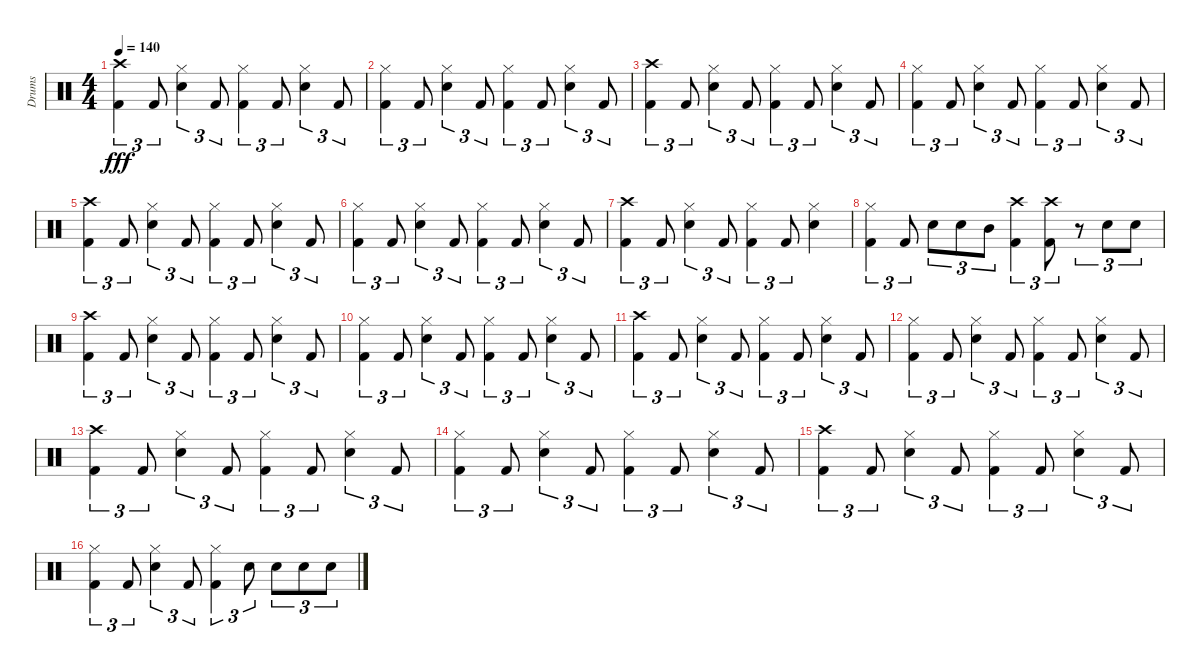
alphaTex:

\track ("Drums" "Drums") {instrument percussion}
\staff {score}
\articulation defaults
\ts (4 4)
\tempo 140
\clef neutral
\ks c
("Crash high (hit)" "Kick (hit) 2").4{tu (3 2) dy fff} "Kick (hit) 2".8{tu (3 2)} ("Hi-Hat (closed)" "Snare (hit) 2").4{tu (3 2)} "Kick (hit) 2".8{tu (3 2)} ("Kick (hit) 2" "Hi-Hat (closed)").4{tu (3 2)} "Kick (hit) 2".8{tu (3 2)} ("Hi-Hat (closed)" "Snare (hit) 2").4{tu (3 2)} "Kick (hit) 2".8{tu (3 2)} |
("Kick (hit) 2" "Hi-Hat (closed)").4{tu (3 2)} "Kick (hit) 2".8{tu (3 2)} ("Hi-Hat (closed)" "Snare (hit) 2").4{tu (3 2)} "Kick (hit) 2".8{tu (3 2)} ("Kick (hit) 2" "Hi-Hat (closed)").4{tu (3 2)} "Kick (hit) 2".8{tu (3 2)} ("Hi-Hat (closed)" "Snare (hit) 2").4{tu (3 2)} "Kick (hit) 2".8{tu (3 2)} |
("Crash high (hit)" "Kick (hit) 2").4{tu (3 2)} "Kick (hit) 2".8{tu (3 2)} ("Hi-Hat (closed)" "Snare (hit) 2").4{tu (3 2)} "Kick (hit) 2".8{tu (3 2)} ("Kick (hit) 2" "Hi-Hat (closed)").4{tu (3 2)} "Kick (hit) 2".8{tu (3 2)} ("Hi-Hat (closed)" "Snare (hit) 2").4{tu (3 2)} "Kick (hit) 2".8{tu (3 2)} |
("Kick (hit) 2" "Hi-Hat (closed)").4{tu (3 2)} "Kick (hit) 2".8{tu (3 2)} ("Hi-Hat (closed)" "Snare (hit) 2").4{tu (3 2)} "Kick (hit) 2".8{tu (3 2)} ("Kick (hit) 2" "Hi-Hat (closed)").4{tu (3 2)} "Kick (hit) 2".8{tu (3 2)} ("Hi-Hat (closed)" "Snare (hit) 2").4{tu (3 2)} "Kick (hit) 2".8{tu (3 2)} |
("Crash high (hit)" "Kick (hit) 2").4{tu (3 2)} "Kick (hit) 2".8{tu (3 2)} ("Hi-Hat (closed)" "Snare (hit) 2").4{tu (3 2)} "Kick (hit) 2".8{tu (3 2)} ("Kick (hit) 2" "Hi-Hat (closed)").4{tu (3 2)} "Kick (hit) 2".8{tu (3 2)} ("Hi-Hat (closed)" "Snare (hit) 2").4{tu (3 2)} "Kick (hit) 2".8{tu (3 2)} |
("Kick (hit) 2" "Hi-Hat (closed)").4{tu (3 2)} "Kick (hit) 2".8{tu (3 2)} ("Hi-Hat (closed)" "Snare (hit) 2").4{tu (3 2)} "Kick (hit) 2".8{tu (3 2)} ("Kick (hit) 2" "Hi-Hat (closed)").4{tu (3 2)} "Kick (hit) 2".8{tu (3 2)} ("Hi-Hat (closed)" "Snare (hit) 2").4{tu (3 2)} "Kick (hit) 2".8{tu (3 2)} |
("Crash high (hit)" "Kick (hit) 2").4{tu (3 2)} "Kick (hit) 2".8{tu (3 2)} ("Hi-Hat (closed)" "Snare (hit) 2").4{tu (3 2)} "Kick (hit) 2".8{tu (3 2)} ("Kick (hit) 2" "Hi-Hat (closed)").4{tu (3 2)} "Kick (hit) 2".8{tu (3 2)} ("Hi-Hat (closed)" "Snare (hit) 2").4 |
("Hi-Hat (closed)" "Kick (hit) 2").4{tu (3 2)} "Kick (hit) 2".8{tu (3 2)} "Snare (hit) 2".8{tu (3 2)} "Snare (hit) 2".8{tu (3 2)} "Mid Tom (hit)".8{tu (3 2)} ("Kick (hit) 2" "Crash high (hit)").4{tu (3 2)} ("Kick (hit) 2" "Crash high (hit)").8{tu (3 2)} r.8{tu (3 2)} "Snare (hit) 2".8{tu (3 2)} "Snare (hit) 2".8{tu (3 2)} |
("Crash high (hit)" "Kick (hit) 2").4{tu (3 2)} "Kick (hit) 2".8{tu (3 2)} ("Hi-Hat (closed)" "Snare (hit) 2").4{tu (3 2)} "Kick (hit) 2".8{tu (3 2)} ("Kick (hit) 2" "Hi-Hat (closed)").4{tu (3 2)} "Kick (hit) 2".8{tu (3 2)} ("Hi-Hat (closed)" "Snare (hit) 2").4{tu (3 2)} "Kick (hit) 2".8{tu (3 2)} |
("Kick (hit) 2" "Hi-Hat (closed)").4{tu (3 2)} "Kick (hit) 2".8{tu (3 2)} ("Hi-Hat (closed)" "Snare (hit) 2").4{tu (3 2)} "Kick (hit) 2".8{tu (3 2)} ("Kick (hit) 2" "Hi-Hat (closed)").4{tu (3 2)} "Kick (hit) 2".8{tu (3 2)} ("Hi-Hat (closed)" "Snare (hit) 2").4{tu (3 2)} "Kick (hit) 2".8{tu (3 2)} |
("Crash high (hit)" "Kick (hit) 2").4{tu (3 2)} "Kick (hit) 2".8{tu (3 2)} ("Hi-Hat (closed)" "Snare (hit) 2").4{tu (3 2)} "Kick (hit) 2".8{tu (3 2)} ("Kick (hit) 2" "Hi-Hat (closed)").4{tu (3 2)} "Kick (hit) 2".8{tu (3 2)} ("Hi-Hat (closed)" "Snare (hit) 2").4{tu (3 2)} "Kick (hit) 2".8{tu (3 2)} |
("Kick (hit) 2" "Hi-Hat (closed)").4{tu (3 2)} "Kick (hit) 2".8{tu (3 2)} ("Hi-Hat (closed)" "Snare (hit) 2").4{tu (3 2)} "Kick (hit) 2".8{tu (3 2)} ("Kick (hit) 2" "Hi-Hat (closed)").4{tu (3 2)} "Kick (hit) 2".8{tu (3 2)} ("Hi-Hat (closed)" "Snare (hit) 2").4{tu (3 2)} "Kick (hit) 2".8{tu (3 2)} |
("Crash high (hit)" "Kick (hit) 2").4{tu (3 2)} "Kick (hit) 2".8{tu (3 2)} ("Hi-Hat (closed)" "Snare (hit) 2").4{tu (3 2)} "Kick (hit) 2".8{tu (3 2)} ("Kick (hit) 2" "Hi-Hat (closed)").4{tu (3 2)} "Kick (hit) 2".8{tu (3 2)} ("Hi-Hat (closed)" "Snare (hit) 2").4{tu (3 2)} "Kick (hit) 2".8{tu (3 2)} |
("Kick (hit) 2" "Hi-Hat (closed)").4{tu (3 2)} "Kick (hit) 2".8{tu (3 2)} ("Hi-Hat (closed)" "Snare (hit) 2").4{tu (3 2)} "Kick (hit) 2".8{tu (3 2)} ("Kick (hit) 2" "Hi-Hat (closed)").4{tu (3 2)} "Kick (hit) 2".8{tu (3 2)} ("Hi-Hat (closed)" "Snare (hit) 2").4{tu (3 2)} "Kick (hit) 2".8{tu (3 2)} |
("Crash high (hit)" "Kick (hit) 2").4{tu (3 2)} "Kick (hit) 2".8{tu (3 2)} ("Hi-Hat (closed)" "Snare (hit) 2").4{tu (3 2)} "Kick (hit) 2".8{tu (3 2)} ("Kick (hit) 2" "Hi-Hat (closed)").4{tu (3 2)} "Kick (hit) 2".8{tu (3 2)} ("Hi-Hat (closed)" "Snare (hit) 2").4{tu (3 2)} "Kick (hit) 2".8{tu (3 2)} |
("Kick (hit) 2" "Hi-Hat (closed)").4{tu (3 2)} "Kick (hit) 2".8{tu (3 2)} ("Hi-Hat (closed)" "Snare (hit) 2").4{tu (3 2)} "Kick (hit) 2".8{tu (3 2)} ("Kick (hit) 2" "Hi-Hat (closed)").4{tu (3 2)} "Snare (hit) 2".8{tu (3 2)} "Snare (hit) 2".8{tu (3 2)} "Snare (hit) 2".8{tu (3 2)} "Snare (hit) 2".8{tu (3 2)}
